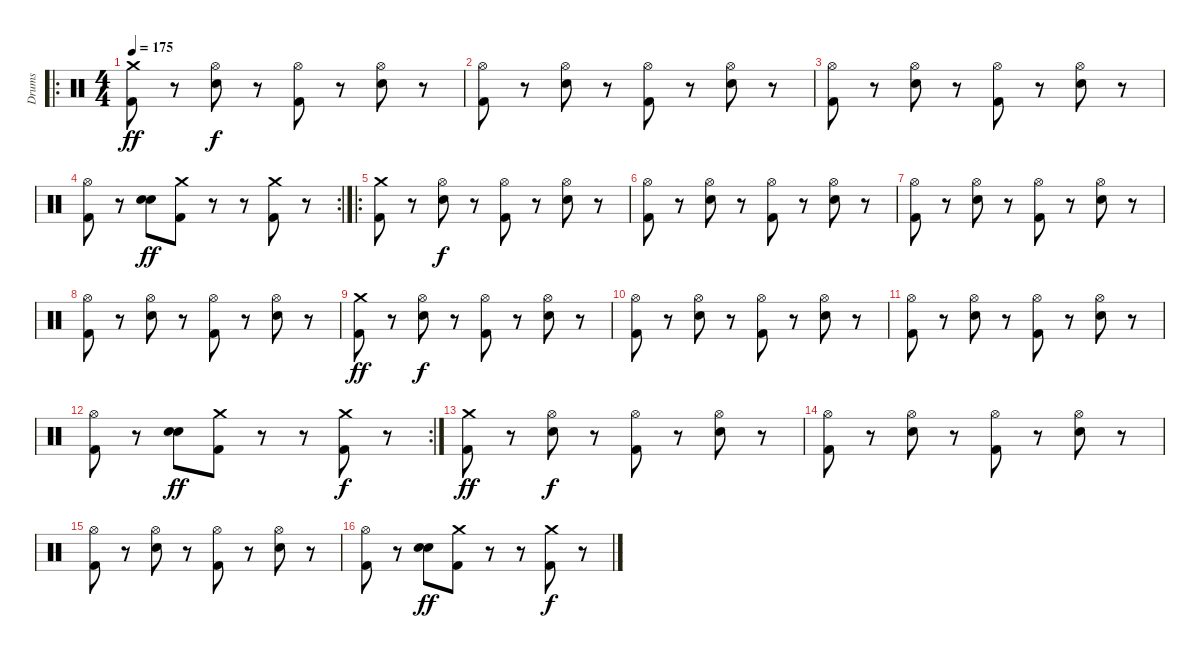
\track ("Drums" "Drums") {instrument percussion}
\staff {score}
\articulation defaults
\ro
\ts (4 4)
\tempo 175
\clef neutral
\ks c
("Crash medium (hit)" "Kick (hit) 2").8{dy ff} r.8 ("Hi-Hat (open)" "Electric Snare (hit)").8{dy f} r.8 ("Hi-Hat (open)" "Kick (hit) 2").8 r.8 ("Hi-Hat (open)" "Electric Snare (hit)").8 r.8 |
("Hi-Hat (open)" "Kick (hit) 2").8 r.8 ("Hi-Hat (open)" "Electric Snare (hit)").8 r.8 ("Hi-Hat (open)" "Kick (hit) 2").8 r.8 ("Hi-Hat (open)" "Electric Snare (hit)").8 r.8 |
("Hi-Hat (open)" "Kick (hit) 2").8 r.8 ("Hi-Hat (open)" "Electric Snare (hit)").8 r.8 ("Hi-Hat (open)" "Kick (hit) 2").8 r.8 ("Hi-Hat (open)" "Electric Snare (hit)").8 r.8 |
\rc 2
("Hi-Hat (open)" "Kick (hit) 2").8 r.8 ("Electric Snare (hit)" "Electric Snare (hit)").8{bd 240 dy ff} ("Crash medium (hit)" "Kick (hit) 2").8 r.8 r.8 ("Crash medium (hit)" "Kick (hit) 2").8 r.8 |
\ro
("Crash medium (hit)" "Kick (hit) 2").8 r.8 ("Hi-Hat (open)" "Electric Snare (hit)").8{dy f} r.8 ("Hi-Hat (open)" "Kick (hit) 2").8 r.8 ("Hi-Hat (open)" "Electric Snare (hit)").8 r.8 |
("Hi-Hat (open)" "Kick (hit) 2").8 r.8 ("Hi-Hat (open)" "Electric Snare (hit)").8 r.8 ("Hi-Hat (open)" "Kick (hit) 2").8 r.8 ("Hi-Hat (open)" "Electric Snare (hit)").8 r.8 |
("Hi-Hat (open)" "Kick (hit) 2").8 r.8 ("Hi-Hat (open)" "Electric Snare (hit)").8 r.8 ("Hi-Hat (open)" "Kick (hit) 2").8 r.8 ("Hi-Hat (open)" "Electric Snare (hit)").8 r.8 |
("Hi-Hat (open)" "Kick (hit) 2").8 r.8 ("Hi-Hat (open)" "Electric Snare (hit)").8 r.8 ("Hi-Hat (open)" "Kick (hit) 2").8 r.8 ("Hi-Hat (open)" "Electric Snare (hit)").8 r.8 |
("Crash medium (hit)" "Kick (hit) 2").8{dy ff} r.8 ("Hi-Hat (open)" "Electric Snare (hit)").8{dy f} r.8 ("Hi-Hat (open)" "Kick (hit) 2").8 r.8 ("Hi-Hat (open)" "Electric Snare (hit)").8 r.8 |
("Hi-Hat (open)" "Kick (hit) 2").8 r.8 ("Hi-Hat (open)" "Electric Snare (hit)").8 r.8 ("Hi-Hat (open)" "Kick (hit) 2").8 r.8 ("Hi-Hat (open)" "Electric Snare (hit)").8 r.8 |
("Hi-Hat (open)" "Kick (hit) 2").8 r.8 ("Hi-Hat (open)" "Electric Snare (hit)").8 r.8 ("Hi-Hat (open)" "Kick (hit) 2").8 r.8 ("Hi-Hat (open)" "Electric Snare (hit)").8 r.8 |
\rc 2
("Hi-Hat (open)" "Kick (hit) 2").8 r.8 ("Electric Snare (hit)" "Electric Snare (hit)").8{bd 240 dy ff} ("Crash medium (hit)" "Kick (hit) 2").8 r.8 r.8 ("Crash medium (hit)" "Kick (hit) 2").8{dy f} r.8 |
("Crash medium (hit)" "Kick (hit) 2").8{dy ff} r.8 ("Hi-Hat (open)" "Electric Snare (hit)").8{dy f} r.8 ("Hi-Hat (open)" "Kick (hit) 2").8 r.8 ("Hi-Hat (open)" "Electric Snare (hit)").8 r.8 |
("Hi-Hat (open)" "Kick (hit) 2").8 r.8 ("Hi-Hat (open)" "Electric Snare (hit)").8 r.8 ("Hi-Hat (open)" "Kick (hit) 2").8 r.8 ("Hi-Hat (open)" "Electric Snare (hit)").8 r.8 |
("Hi-Hat (open)" "Kick (hit) 2").8 r.8 ("Hi-Hat (open)" "Electric Snare (hit)").8 r.8 ("Hi-Hat (open)" "Kick (hit) 2").8 r.8 ("Hi-Hat (open)" "Electric Snare (hit)").8 r.8 |
("Hi-Hat (open)" "Kick (hit) 2").8 r.8 ("Electric Snare (hit)" "Electric Snare (hit)").8{bd 240 dy ff} ("Crash medium (hit)" "Kick (hit) 2").8 r.8 r.8 ("Crash medium (hit)" "Kick (hit) 2").8{dy f} r.8
